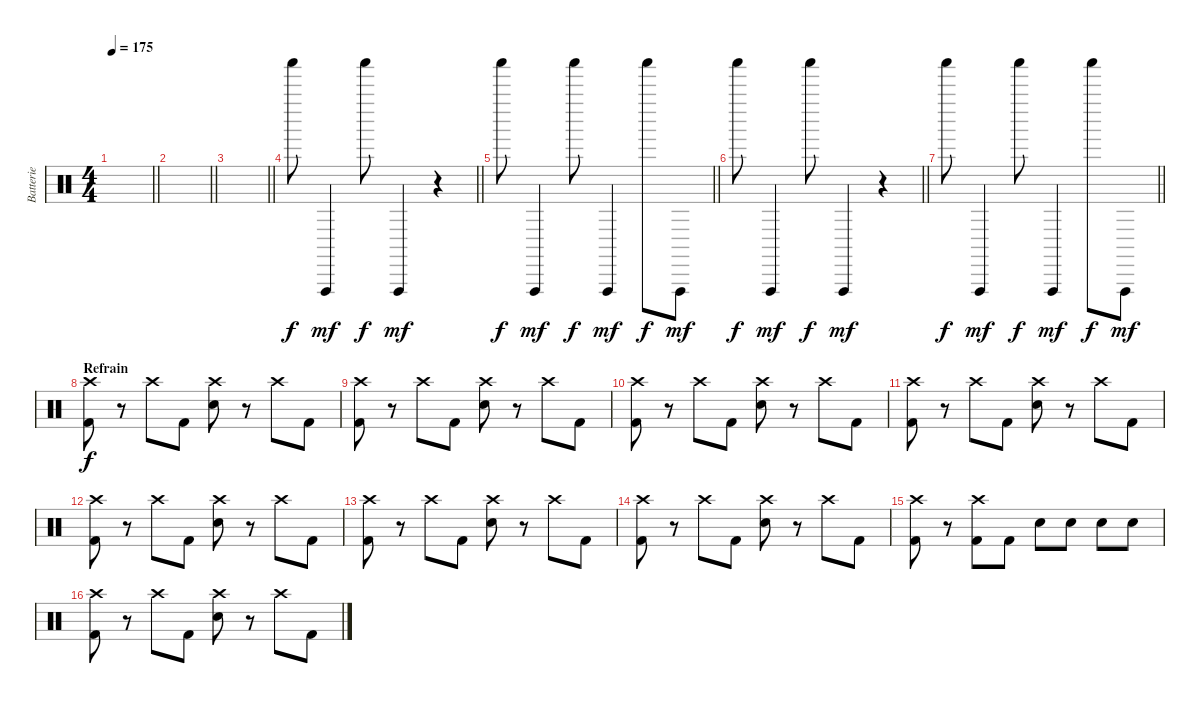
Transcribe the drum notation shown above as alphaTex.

\track ("Batterie" "Batterie") {instrument percussion}
\staff {score}
\articulation defaults
\ts (4 4)
\tempo 175
\clef neutral
\barLineRight lightlight
\ks c
|
\barLineRight lightlight
|
\barLineRight lightlight
|
\barLineRight lightlight "Shaker (hit)".8 "Vibraslap (hit)".4{dy mf} "Shaker (hit)".8{dy f} "Vibraslap (hit)".4{dy mf}
r.4 |
\barLineRight lightlight "Shaker (hit)".8{dy f} "Vibraslap (hit)".4{dy mf} "Shaker (hit)".8{dy f} "Vibraslap (hit)".4{dy mf} "Shaker (hit)".8{dy f} "Vibraslap (hit)".8{dy mf}
|
\barLineRight lightlight "Shaker (hit)".8{dy f} "Vibraslap (hit)".4{dy mf} "Shaker (hit)".8{dy f} "Vibraslap (hit)".4{dy mf}
r.4 |
\barLineRight lightlight "Shaker (hit)".8{dy f} "Vibraslap (hit)".4{dy mf} "Shaker (hit)".8{dy f} "Vibraslap (hit)".4{dy mf} "Shaker (hit)".8{dy f} "Vibraslap (hit)".8{dy mf}
|
\section ("" "Refrain")
("Kick (hit) 2" "Crash high (hit)").8{dy f} r.8 "Crash high (hit)".8 "Kick (hit) 2".8 ("Electric Snare (hit)" "Crash high (hit)").8 r.8 "Crash high (hit)".8 "Kick (hit) 2".8 |
("Kick (hit) 2" "Crash high (hit)").8 r.8 "Crash high (hit)".8 "Kick (hit) 2".8 ("Electric Snare (hit)" "Crash high (hit)").8 r.8 "Crash high (hit)".8 "Kick (hit) 2".8 |
("Kick (hit) 2" "Crash high (hit)").8 r.8 "Crash high (hit)".8 "Kick (hit) 2".8 ("Electric Snare (hit)" "Crash high (hit)").8 r.8 "Crash high (hit)".8 "Kick (hit) 2".8 |
("Kick (hit) 2" "Crash high (hit)").8 r.8 "Crash high (hit)".8 "Kick (hit) 2".8 ("Electric Snare (hit)" "Crash high (hit)").8 r.8 "Crash high (hit)".8 "Kick (hit) 2".8 |
("Kick (hit) 2" "Crash high (hit)").8 r.8 "Crash high (hit)".8 "Kick (hit) 2".8 ("Electric Snare (hit)" "Crash high (hit)").8 r.8 "Crash high (hit)".8 "Kick (hit) 2".8 |
("Kick (hit) 2" "Crash high (hit)").8 r.8 "Crash high (hit)".8 "Kick (hit) 2".8 ("Electric Snare (hit)" "Crash high (hit)").8 r.8 "Crash high (hit)".8 "Kick (hit) 2".8 |
("Kick (hit) 2" "Crash high (hit)").8 r.8 "Crash high (hit)".8 "Kick (hit) 2".8 ("Electric Snare (hit)" "Crash high (hit)").8 r.8 "Crash high (hit)".8 "Kick (hit) 2".8 |
("Kick (hit) 2" "Crash high (hit)").8 r.8 ("Kick (hit) 2" "Crash high (hit)").8 "Kick (hit) 2".8 "Electric Snare (hit)".8 "Electric Snare (hit)".8 "Electric Snare (hit)".8 "Electric Snare (hit)".8 |
("Kick (hit) 2" "Crash high (hit)").8 r.8 "Crash high (hit)".8 "Kick (hit) 2".8 ("Electric Snare (hit)" "Crash high (hit)").8 r.8 "Crash high (hit)".8 "Kick (hit) 2".8
